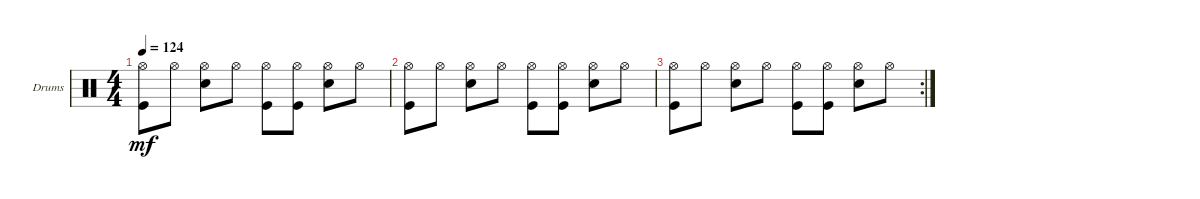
\defaultSystemsLayout 4
\bracketExtendMode groupsimilarinstruments
\firstSystemTrackNameOrientation horizontal
\otherSystemsTrackNameOrientation horizontal
\track ("Drumkit" "Drums") {solo instrument percussion}
\staff {score}
\articulation defaults
\ts (4 4)
\tempo 124
\clef neutral
\ks c
("Kick (hit)" "Hi-Hat (open)").8{dy mf} "Hi-Hat (open)".8 ("Hi-Hat (open)" "Snare (hit) 2").8 "Hi-Hat (open)".8 ("Hi-Hat (open)" "Kick (hit)").8 ("Hi-Hat (open)" "Kick (hit)").8 ("Hi-Hat (open)" "Snare (hit) 2").8 "Hi-Hat (open)".8 |
("Kick (hit)" "Hi-Hat (open)").8 "Hi-Hat (open)".8 ("Hi-Hat (open)" "Snare (hit) 2").8 "Hi-Hat (open)".8 ("Hi-Hat (open)" "Kick (hit)").8 ("Hi-Hat (open)" "Kick (hit)").8 ("Hi-Hat (open)" "Snare (hit) 2").8 "Hi-Hat (open)".8 |
\rc 2
("Kick (hit)" "Hi-Hat (open)").8 "Hi-Hat (open)".8 ("Hi-Hat (open)" "Snare (hit) 2").8 "Hi-Hat (open)".8 ("Hi-Hat (open)" "Kick (hit)").8 ("Hi-Hat (open)" "Kick (hit)").8 ("Hi-Hat (open)" "Snare (hit) 2").8 "Hi-Hat (open)".8
